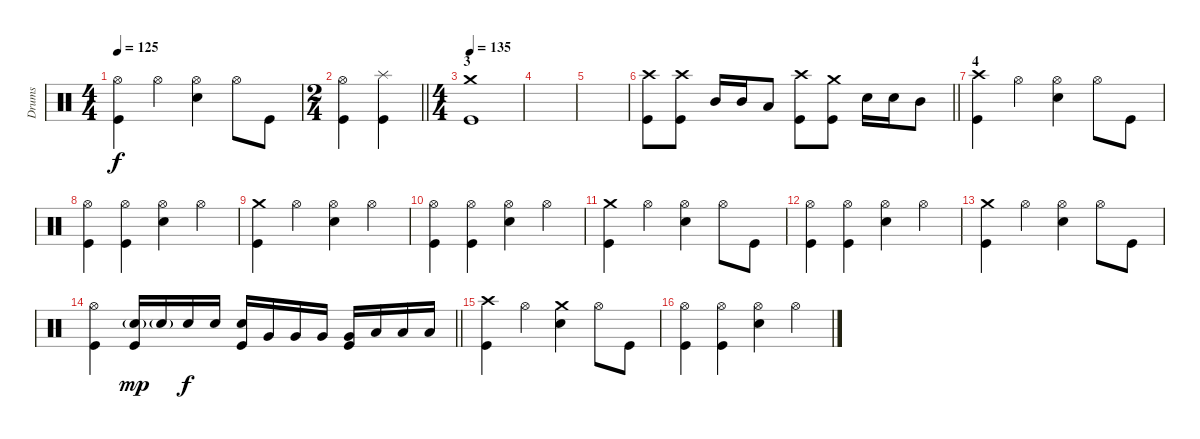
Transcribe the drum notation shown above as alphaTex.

\track ("Drums" "Drums") {instrument percussion}
\staff {score}
\articulation defaults
\ts (4 4)
\tempo 125
\clef neutral
\ks c
("Hi-Hat (open)" "Kick (hit)").4{dy f} "Hi-Hat (open)".4 ("Hi-Hat (open)" "Electric Snare (hit)").4 "Hi-Hat (open)".8 "Kick (hit)".8 |
\ts (2 4)
\barLineRight lightlight
("Hi-Hat (open)" "Kick (hit)").4 ("Splash (hit)" "Kick (hit)").4 |
\ts (4 4)
\section ("" "3")
\tempo 135
("Crash medium (hit)" "Kick (hit)").1 |
|
|
\barLineRight lightlight
("Crash high (hit)" "Kick (hit)").8 ("Crash high (hit)" "Kick (hit)").8 "Mid Tom (hit)".16 "Mid Tom (hit)".16 "Low Tom (hit)".8 ("Crash high (hit)" "Kick (hit)").8 ("Crash medium (hit)" "Kick (hit)").8 "Electric Snare (hit)".16 "Electric Snare (hit)".16 "Mid Tom (hit)".8 |
\section ("" "4")
("Crash high (hit)" "Kick (hit)").4 "Hi-Hat (open)".4 ("Hi-Hat (open)" "Electric Snare (hit)").4 "Hi-Hat (open)".8 "Kick (hit)".8 |
("Hi-Hat (open)" "Kick (hit)").4 ("Hi-Hat (open)" "Kick (hit)").4 ("Hi-Hat (open)" "Electric Snare (hit)").4 "Hi-Hat (open)".4 |
("Crash medium (hit)" "Kick (hit)").4 "Hi-Hat (open)".4 ("Hi-Hat (open)" "Electric Snare (hit)").4 "Hi-Hat (open)".4 |
("Hi-Hat (open)" "Kick (hit)").4 ("Hi-Hat (open)" "Kick (hit)").4 ("Hi-Hat (open)" "Electric Snare (hit)").4 "Hi-Hat (open)".4 |
("Crash medium (hit)" "Kick (hit)").4 "Hi-Hat (open)".4 ("Hi-Hat (open)" "Electric Snare (hit)").4 "Hi-Hat (open)".8 "Kick (hit)".8 |
("Hi-Hat (open)" "Kick (hit)").4 ("Hi-Hat (open)" "Kick (hit)").4 ("Hi-Hat (open)" "Electric Snare (hit)").4 "Hi-Hat (open)".4 |
("Crash medium (hit)" "Kick (hit)").4 "Hi-Hat (open)".4 ("Hi-Hat (open)" "Electric Snare (hit)").4 "Hi-Hat (open)".8 "Kick (hit)".8 |
\barLineRight lightlight
("Hi-Hat (open)" "Kick (hit)").4 ("Electric Snare (hit)"{g} "Kick (hit)").16{dy mp} "Electric Snare (hit)"{g}.16 "Electric Snare (hit)".16{dy f} "Electric Snare (hit)".16 ("Electric Snare (hit)" "Kick (hit)").16 "Very Low Tom (hit)".16 "Very Low Tom (hit)".16 "Very Low Tom (hit)".16 ("Very Low Tom (hit)" "Kick (hit)").16 "Low Floor Tom (hit)".16 "Low Floor Tom (hit)".16 "Low Floor Tom (hit)".16 |
\section ("" "")
("Crash high (hit)" "Kick (hit)").4 "Hi-Hat (open)".4 ("Crash medium (hit)" "Electric Snare (hit)").4 "Hi-Hat (open)".8 "Kick (hit)".8 |
("Hi-Hat (open)" "Kick (hit)").4 ("Hi-Hat (open)" "Kick (hit)").4 ("Hi-Hat (open)" "Electric Snare (hit)").4 "Hi-Hat (open)".4
